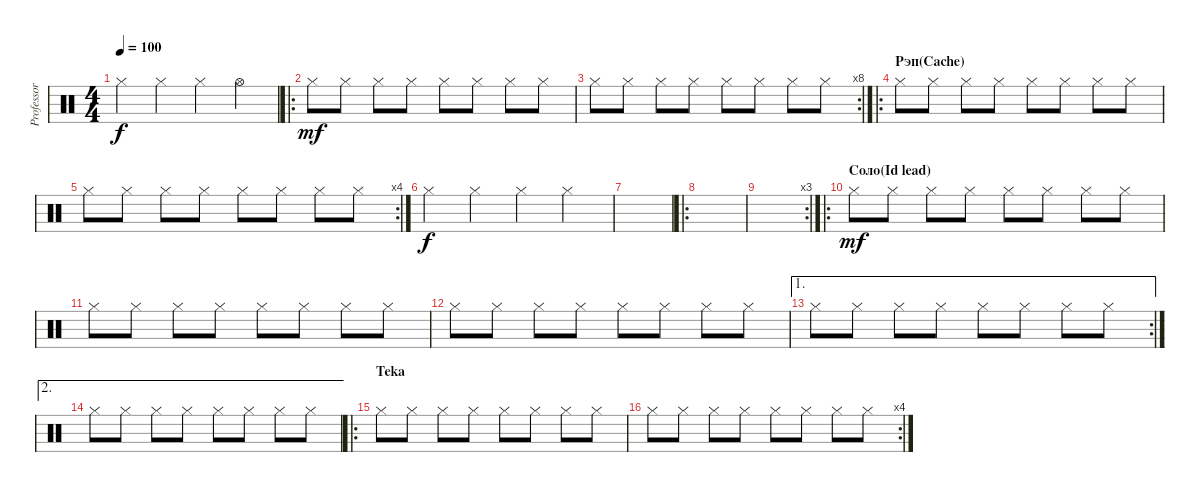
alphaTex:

\track ("Professor" "Professor") {instrument percussion}
\staff {score}
\articulation defaults
\ts (4 4)
\tempo 100
\clef neutral
\ks c "Hi-Hat (closed)".4{dy f} "Hi-Hat (closed)".4 "Hi-Hat (closed)".4 "Hi-Hat (open)".4
|
\ro "Hi-Hat (closed)".8{dy mf} "Hi-Hat (closed)".8 "Hi-Hat (closed)".8 "Hi-Hat (closed)".8 "Hi-Hat (closed)".8 "Hi-Hat (closed)".8 "Hi-Hat (closed)".8 "Hi-Hat (closed)".8
|
\rc 8 "Hi-Hat (closed)".8 "Hi-Hat (closed)".8 "Hi-Hat (closed)".8 "Hi-Hat (closed)".8 "Hi-Hat (closed)".8 "Hi-Hat (closed)".8 "Hi-Hat (closed)".8 "Hi-Hat (closed)".8
|
\ro
\section ("" "Рэп(Cache)")
"Hi-Hat (closed)".8 "Hi-Hat (closed)".8 "Hi-Hat (closed)".8 "Hi-Hat (closed)".8 "Hi-Hat (closed)".8 "Hi-Hat (closed)".8 "Hi-Hat (closed)".8 "Hi-Hat (closed)".8 |
\rc 4 "Hi-Hat (closed)".8 "Hi-Hat (closed)".8 "Hi-Hat (closed)".8 "Hi-Hat (closed)".8 "Hi-Hat (closed)".8 "Hi-Hat (closed)".8 "Hi-Hat (closed)".8 "Hi-Hat (closed)".8
|
"Hi-Hat (closed)".4{dy f} "Hi-Hat (closed)".4 "Hi-Hat (closed)".4 "Hi-Hat (closed)".4 |
|
\ro
|
\rc 3
|
\ro
\section ("" "Соло(Id lead)")
"Hi-Hat (closed)".8{dy mf} "Hi-Hat (closed)".8 "Hi-Hat (closed)".8 "Hi-Hat (closed)".8 "Hi-Hat (closed)".8 "Hi-Hat (closed)".8 "Hi-Hat (closed)".8 "Hi-Hat (closed)".8 |
"Hi-Hat (closed)".8 "Hi-Hat (closed)".8 "Hi-Hat (closed)".8 "Hi-Hat (closed)".8 "Hi-Hat (closed)".8 "Hi-Hat (closed)".8 "Hi-Hat (closed)".8 "Hi-Hat (closed)".8 |
"Hi-Hat (closed)".8 "Hi-Hat (closed)".8 "Hi-Hat (closed)".8 "Hi-Hat (closed)".8 "Hi-Hat (closed)".8 "Hi-Hat (closed)".8 "Hi-Hat (closed)".8 "Hi-Hat (closed)".8 |
\ae 1
\rc 2 "Hi-Hat (closed)".8 "Hi-Hat (closed)".8 "Hi-Hat (closed)".8 "Hi-Hat (closed)".8 "Hi-Hat (closed)".8 "Hi-Hat (closed)".8 "Hi-Hat (closed)".8 "Hi-Hat (closed)".8
|
\ae 2 "Hi-Hat (closed)".8 "Hi-Hat (closed)".8 "Hi-Hat (closed)".8 "Hi-Hat (closed)".8 "Hi-Hat (closed)".8 "Hi-Hat (closed)".8 "Hi-Hat (closed)".8 "Hi-Hat (closed)".8
|
\ro
\section ("" "Teka")
"Hi-Hat (closed)".8 "Hi-Hat (closed)".8 "Hi-Hat (closed)".8 "Hi-Hat (closed)".8 "Hi-Hat (closed)".8 "Hi-Hat (closed)".8 "Hi-Hat (closed)".8 "Hi-Hat (closed)".8 |
\rc 4 "Hi-Hat (closed)".8 "Hi-Hat (closed)".8 "Hi-Hat (closed)".8 "Hi-Hat (closed)".8 "Hi-Hat (closed)".8 "Hi-Hat (closed)".8 "Hi-Hat (closed)".8 "Hi-Hat (closed)".8
